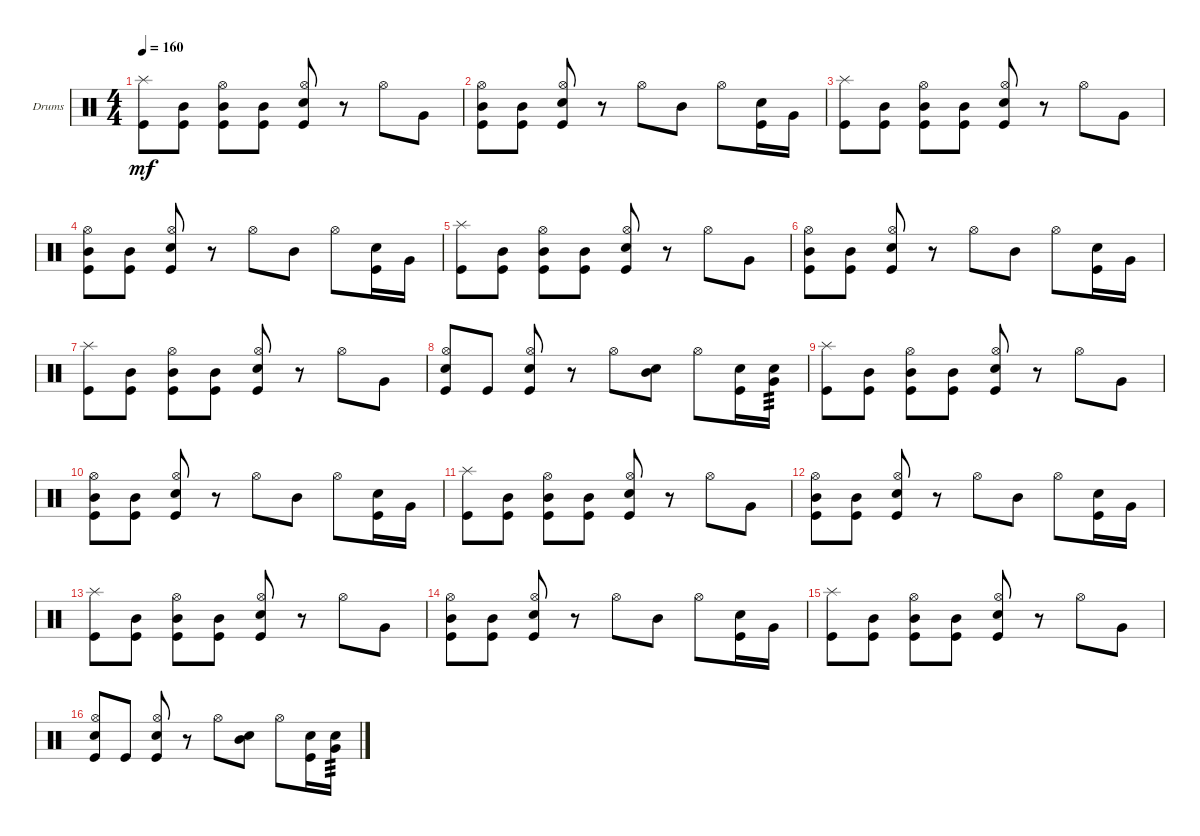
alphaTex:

\defaultSystemsLayout 4
\bracketExtendMode groupsimilarinstruments
\firstSystemTrackNameOrientation horizontal
\otherSystemsTrackNameOrientation horizontal
\track ("Drumkit" "Drums") {instrument percussion}
\staff {score}
\articulation defaults
\ts (4 4)
\tempo 160
\clef neutral
\ks c
("Splash (hit)" "Kick (hit)").8{dy mf} ("Kick (hit)" "Mid Tom (hit)").8 ("Kick (hit)" "Mid Tom (hit)" "Hi-Hat (open)").8 ("Kick (hit)" "Mid Tom (hit)").8 ("Kick (hit)" "Snare (hit) 2" "Hi-Hat (open)").8 r.8 "Hi-Hat (open)".8 "Very Low Tom (hit)".8 |
("Kick (hit)" "Mid Tom (hit)" "Hi-Hat (open)").8 ("Kick (hit)" "Mid Tom (hit)").8 ("Kick (hit)" "Snare (hit) 2" "Hi-Hat (open)").8 r.8 "Hi-Hat (open)".8 "Mid Tom (hit)".8 "Hi-Hat (open)".8 ("Kick (hit)" "Snare (hit) 2").16 "Very Low Tom (hit)".16 |
("Splash (hit)" "Kick (hit)").8 ("Kick (hit)" "Mid Tom (hit)").8 ("Kick (hit)" "Mid Tom (hit)" "Hi-Hat (open)").8 ("Kick (hit)" "Mid Tom (hit)").8 ("Kick (hit)" "Snare (hit) 2" "Hi-Hat (open)").8 r.8 "Hi-Hat (open)".8 "Very Low Tom (hit)".8 |
("Kick (hit)" "Mid Tom (hit)" "Hi-Hat (open)").8 ("Kick (hit)" "Mid Tom (hit)").8 ("Kick (hit)" "Snare (hit) 2" "Hi-Hat (open)").8 r.8 "Hi-Hat (open)".8 "Mid Tom (hit)".8 "Hi-Hat (open)".8 ("Kick (hit)" "Snare (hit) 2").16 "Very Low Tom (hit)".16 |
("Splash (hit)" "Kick (hit)").8 ("Kick (hit)" "Mid Tom (hit)").8 ("Kick (hit)" "Mid Tom (hit)" "Hi-Hat (open)").8 ("Kick (hit)" "Mid Tom (hit)").8 ("Kick (hit)" "Snare (hit) 2" "Hi-Hat (open)").8 r.8 "Hi-Hat (open)".8 "Very Low Tom (hit)".8 |
("Kick (hit)" "Mid Tom (hit)" "Hi-Hat (open)").8 ("Kick (hit)" "Mid Tom (hit)").8 ("Kick (hit)" "Snare (hit) 2" "Hi-Hat (open)").8 r.8 "Hi-Hat (open)".8 "Mid Tom (hit)".8 "Hi-Hat (open)".8 ("Kick (hit)" "Snare (hit) 2").16 "Very Low Tom (hit)".16 |
("Splash (hit)" "Kick (hit)").8 ("Kick (hit)" "Mid Tom (hit)").8 ("Kick (hit)" "Mid Tom (hit)" "Hi-Hat (open)").8 ("Kick (hit)" "Mid Tom (hit)").8 ("Kick (hit)" "Snare (hit) 2" "Hi-Hat (open)").8 r.8 "Hi-Hat (open)".8 "Very Low Tom (hit)".8 |
("Kick (hit)" "Hi-Hat (open)" "Snare (hit) 2").8 "Kick (hit)".8 ("Kick (hit)" "Snare (hit) 2" "Hi-Hat (open)").8 r.8 "Hi-Hat (open)".8 ("Mid Tom (hit)" "Snare (hit) 2").8 "Hi-Hat (open)".8 ("Kick (hit)" "Snare (hit) 2").16 ("Very Low Tom (hit)" "Snare (hit) 2").16{tp 3} |
("Splash (hit)" "Kick (hit)").8 ("Kick (hit)" "Mid Tom (hit)").8 ("Kick (hit)" "Mid Tom (hit)" "Hi-Hat (open)").8 ("Kick (hit)" "Mid Tom (hit)").8 ("Kick (hit)" "Snare (hit) 2" "Hi-Hat (open)").8 r.8 "Hi-Hat (open)".8 "Very Low Tom (hit)".8 |
("Kick (hit)" "Mid Tom (hit)" "Hi-Hat (open)").8 ("Kick (hit)" "Mid Tom (hit)").8 ("Kick (hit)" "Snare (hit) 2" "Hi-Hat (open)").8 r.8 "Hi-Hat (open)".8 "Mid Tom (hit)".8 "Hi-Hat (open)".8 ("Kick (hit)" "Snare (hit) 2").16 "Very Low Tom (hit)".16 |
("Splash (hit)" "Kick (hit)").8 ("Kick (hit)" "Mid Tom (hit)").8 ("Kick (hit)" "Mid Tom (hit)" "Hi-Hat (open)").8 ("Kick (hit)" "Mid Tom (hit)").8 ("Kick (hit)" "Snare (hit) 2" "Hi-Hat (open)").8 r.8 "Hi-Hat (open)".8 "Very Low Tom (hit)".8 |
("Kick (hit)" "Mid Tom (hit)" "Hi-Hat (open)").8 ("Kick (hit)" "Mid Tom (hit)").8 ("Kick (hit)" "Snare (hit) 2" "Hi-Hat (open)").8 r.8 "Hi-Hat (open)".8 "Mid Tom (hit)".8 "Hi-Hat (open)".8 ("Kick (hit)" "Snare (hit) 2").16 "Very Low Tom (hit)".16 |
("Splash (hit)" "Kick (hit)").8 ("Kick (hit)" "Mid Tom (hit)").8 ("Kick (hit)" "Mid Tom (hit)" "Hi-Hat (open)").8 ("Kick (hit)" "Mid Tom (hit)").8 ("Kick (hit)" "Snare (hit) 2" "Hi-Hat (open)").8 r.8 "Hi-Hat (open)".8 "Very Low Tom (hit)".8 |
("Kick (hit)" "Mid Tom (hit)" "Hi-Hat (open)").8 ("Kick (hit)" "Mid Tom (hit)").8 ("Kick (hit)" "Snare (hit) 2" "Hi-Hat (open)").8 r.8 "Hi-Hat (open)".8 "Mid Tom (hit)".8 "Hi-Hat (open)".8 ("Kick (hit)" "Snare (hit) 2").16 "Very Low Tom (hit)".16 |
("Splash (hit)" "Kick (hit)").8 ("Kick (hit)" "Mid Tom (hit)").8 ("Kick (hit)" "Mid Tom (hit)" "Hi-Hat (open)").8 ("Kick (hit)" "Mid Tom (hit)").8 ("Kick (hit)" "Snare (hit) 2" "Hi-Hat (open)").8 r.8 "Hi-Hat (open)".8 "Very Low Tom (hit)".8 |
("Kick (hit)" "Hi-Hat (open)" "Snare (hit) 2").8 "Kick (hit)".8 ("Kick (hit)" "Snare (hit) 2" "Hi-Hat (open)").8 r.8 "Hi-Hat (open)".8 ("Mid Tom (hit)" "Snare (hit) 2").8 "Hi-Hat (open)".8 ("Kick (hit)" "Snare (hit) 2").16 ("Very Low Tom (hit)" "Snare (hit) 2").16{tp 3}
